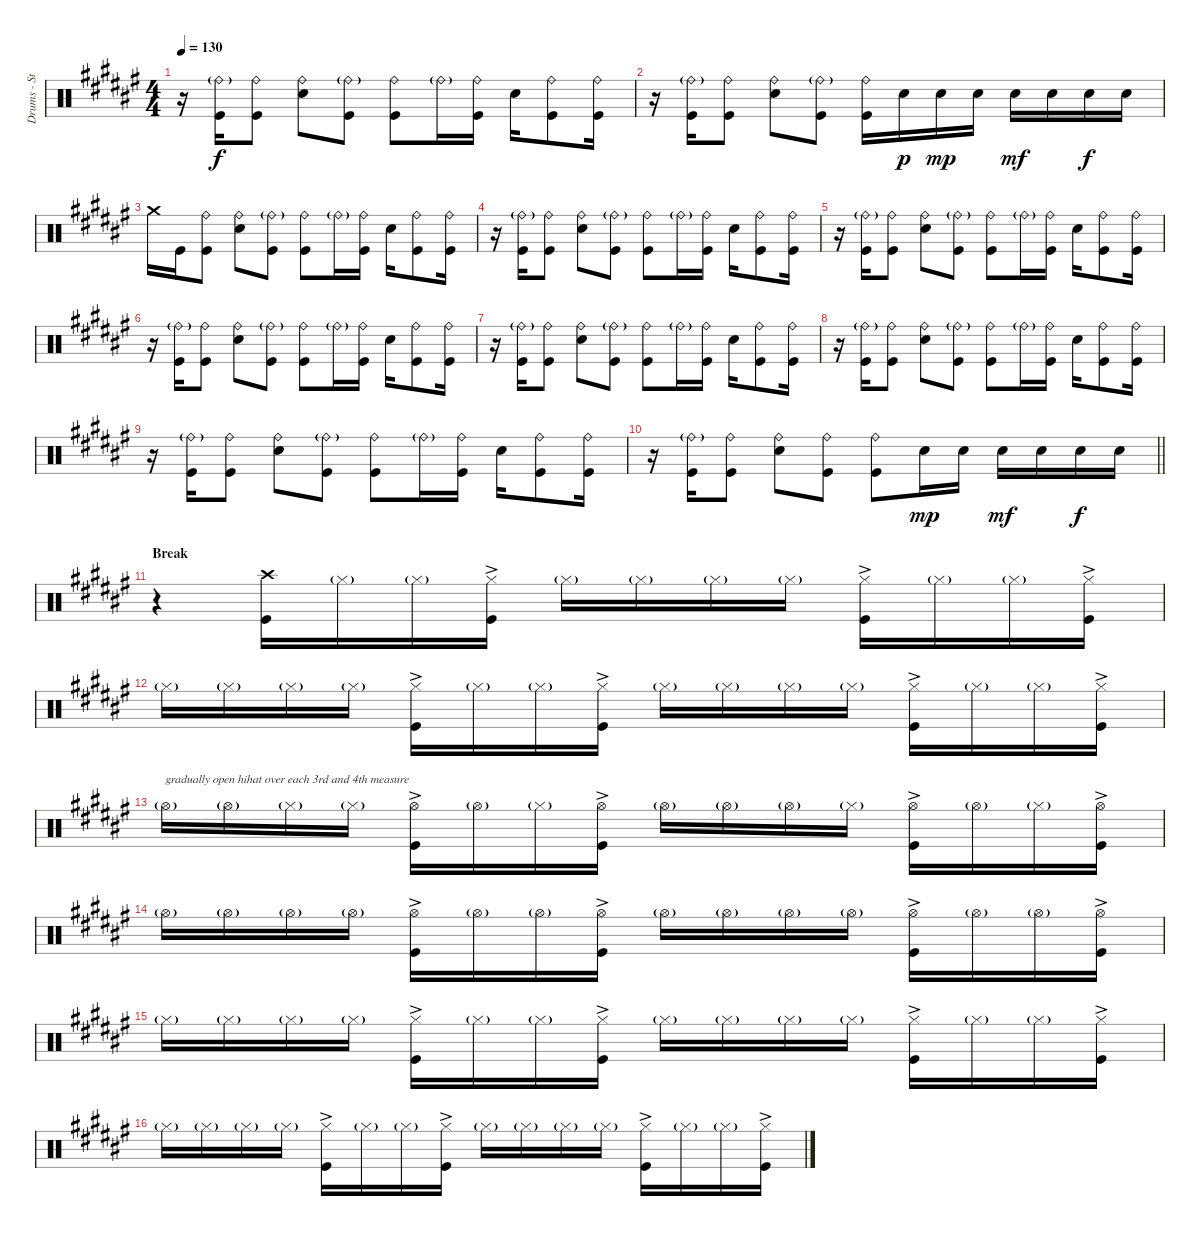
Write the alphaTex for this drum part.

\track ("Drums - Stef Broks" "Drums - St") {instrument percussion}
\staff {score}
\articulation defaults
\ts (4 4)
\tempo 130
\clef neutral
\ks d#minor
r.16{dy f} ("Kick (hit)" "Ride (bell)"{g}).16 ("Kick (hit)" "Ride (bell)").8 ("Ride (bell)" "Snare (hit) 2").8 ("Ride (bell)"{g} "Kick (hit)").8 ("Ride (bell)" "Kick (hit)").8 "Ride (bell)"{g}.16 ("Ride (bell)" "Kick (hit)").16 "Snare (hit) 2".16 ("Kick (hit)" "Ride (bell)").8 ("Kick (hit)" "Ride (bell)").16 |
r.16 ("Kick (hit)" "Ride (bell)"{g}).16 ("Kick (hit)" "Ride (bell)").8 ("Ride (bell)" "Snare (hit) 2").8 ("Ride (bell)"{g} "Kick (hit)").8 ("Ride (bell)" "Kick (hit)").16 "Snare (hit) 2".16{dy p} "Snare (hit) 2".16{dy mp} "Snare (hit) 2".16 "Snare (hit) 2".16{dy mf} "Snare (hit) 2".16 "Snare (hit) 2".16{dy f} "Snare (hit) 2".16 |
"Crash medium (hit)".16 "Kick (hit)".16 ("Kick (hit)" "Ride (bell)").8 ("Ride (bell)" "Snare (hit) 2").8 ("Ride (bell)"{g} "Kick (hit)").8 ("Ride (bell)" "Kick (hit)").8 "Ride (bell)"{g}.16 ("Ride (bell)" "Kick (hit)").16 "Snare (hit) 2".16 ("Kick (hit)" "Ride (bell)").8 ("Kick (hit)" "Ride (bell)").16 |
r.16 ("Kick (hit)" "Ride (bell)"{g}).16 ("Kick (hit)" "Ride (bell)").8 ("Ride (bell)" "Snare (hit) 2").8 ("Ride (bell)"{g} "Kick (hit)").8 ("Ride (bell)" "Kick (hit)").8 "Ride (bell)"{g}.16 ("Ride (bell)" "Kick (hit)").16 "Snare (hit) 2".16 ("Kick (hit)" "Ride (bell)").8 ("Kick (hit)" "Ride (bell)").16 |
r.16 ("Kick (hit)" "Ride (bell)"{g}).16 ("Kick (hit)" "Ride (bell)").8 ("Ride (bell)" "Snare (hit) 2").8 ("Ride (bell)"{g} "Kick (hit)").8 ("Ride (bell)" "Kick (hit)").8 "Ride (bell)"{g}.16 ("Ride (bell)" "Kick (hit)").16 "Snare (hit) 2".16 ("Kick (hit)" "Ride (bell)").8 ("Kick (hit)" "Ride (bell)").16 |
r.16 ("Kick (hit)" "Ride (bell)"{g}).16 ("Kick (hit)" "Ride (bell)").8 ("Ride (bell)" "Snare (hit) 2").8 ("Ride (bell)"{g} "Kick (hit)").8 ("Ride (bell)" "Kick (hit)").8 "Ride (bell)"{g}.16 ("Ride (bell)" "Kick (hit)").16 "Snare (hit) 2".16 ("Kick (hit)" "Ride (bell)").8 ("Kick (hit)" "Ride (bell)").16 |
r.16 ("Kick (hit)" "Ride (bell)"{g}).16 ("Kick (hit)" "Ride (bell)").8 ("Ride (bell)" "Snare (hit) 2").8 ("Ride (bell)"{g} "Kick (hit)").8 ("Ride (bell)" "Kick (hit)").8 "Ride (bell)"{g}.16 ("Ride (bell)" "Kick (hit)").16 "Snare (hit) 2".16 ("Kick (hit)" "Ride (bell)").8 ("Kick (hit)" "Ride (bell)").16 |
r.16 ("Kick (hit)" "Ride (bell)"{g}).16 ("Kick (hit)" "Ride (bell)").8 ("Ride (bell)" "Snare (hit) 2").8 ("Ride (bell)"{g} "Kick (hit)").8 ("Ride (bell)" "Kick (hit)").8 "Ride (bell)"{g}.16 ("Ride (bell)" "Kick (hit)").16 "Snare (hit) 2".16 ("Kick (hit)" "Ride (bell)").8 ("Kick (hit)" "Ride (bell)").16 |
r.16 ("Kick (hit)" "Ride (bell)"{g}).16 ("Kick (hit)" "Ride (bell)").8 ("Ride (bell)" "Snare (hit) 2").8 ("Ride (bell)"{g} "Kick (hit)").8 ("Ride (bell)" "Kick (hit)").8 "Ride (bell)"{g}.16 ("Ride (bell)" "Kick (hit)").16 "Snare (hit) 2".16 ("Kick (hit)" "Ride (bell)").8 ("Kick (hit)" "Ride (bell)").16 |
\barLineRight lightlight
r.16 ("Kick (hit)" "Ride (bell)"{g}).16 ("Kick (hit)" "Ride (bell)").8 ("Ride (bell)" "Snare (hit) 2").8 ("Ride (bell)" "Kick (hit)").8 ("Ride (bell)" "Kick (hit)").8 "Snare (hit) 2".16{dy mp} "Snare (hit) 2".16 "Snare (hit) 2".16{dy mf} "Snare (hit) 2".16 "Snare (hit) 2".16{dy f} "Snare (hit) 2".16 |
\section ("" "Break")
r.4 ("Crash high (hit)" "Kick (hit)").16 "Hi-Hat (closed)"{g}.16 "Hi-Hat (closed)"{g}.16 ("Hi-Hat (closed)"{ac} "Kick (hit)").16 "Hi-Hat (closed)"{g}.16 "Hi-Hat (closed)"{g}.16 "Hi-Hat (closed)"{g}.16 "Hi-Hat (closed)"{g}.16 ("Hi-Hat (closed)"{ac} "Kick (hit)").16 "Hi-Hat (closed)"{g}.16 "Hi-Hat (closed)"{g}.16 ("Hi-Hat (closed)"{ac} "Kick (hit)").16 |
"Hi-Hat (closed)"{g}.16 "Hi-Hat (closed)"{g}.16 "Hi-Hat (closed)"{g}.16 "Hi-Hat (closed)"{g}.16 ("Hi-Hat (closed)"{ac} "Kick (hit)").16 "Hi-Hat (closed)"{g}.16 "Hi-Hat (closed)"{g}.16 ("Hi-Hat (closed)"{ac} "Kick (hit)").16 "Hi-Hat (closed)"{g}.16 "Hi-Hat (closed)"{g}.16 "Hi-Hat (closed)"{g}.16 "Hi-Hat (closed)"{g}.16 ("Hi-Hat (closed)"{ac} "Kick (hit)").16 "Hi-Hat (closed)"{g}.16 "Hi-Hat (closed)"{g}.16 ("Hi-Hat (closed)"{ac} "Kick (hit)").16 |
"Hi-Hat (open)"{g}.16{txt "gradually open hihat over each 3rd and 4th measure"} "Hi-Hat (open)"{g}.16 "Hi-Hat (closed)"{g}.16 "Hi-Hat (closed)"{g}.16 ("Hi-Hat (open)"{ac} "Kick (hit)").16 "Hi-Hat (open)"{g}.16 "Hi-Hat (closed)"{g}.16 ("Hi-Hat (open)"{ac} "Kick (hit)").16 "Hi-Hat (open)"{g}.16 "Hi-Hat (open)"{g}.16 "Hi-Hat (open)"{g}.16 "Hi-Hat (closed)"{g}.16 ("Hi-Hat (open)"{ac} "Kick (hit)").16 "Hi-Hat (open)"{g}.16 "Hi-Hat (closed)"{g}.16 ("Hi-Hat (open)"{ac} "Kick (hit)").16 |
"Hi-Hat (open)"{g}.16 "Hi-Hat (open)"{g}.16 "Hi-Hat (open)"{g}.16 "Hi-Hat (open)"{g}.16 ("Hi-Hat (open)"{ac} "Kick (hit)").16 "Hi-Hat (open)"{g}.16 "Hi-Hat (open)"{g}.16 ("Hi-Hat (open)"{ac} "Kick (hit)").16 "Hi-Hat (open)"{g}.16 "Hi-Hat (open)"{g}.16 "Hi-Hat (open)"{g}.16 "Hi-Hat (open)"{g}.16 ("Hi-Hat (open)"{ac} "Kick (hit)").16 "Hi-Hat (open)"{g}.16 "Hi-Hat (open)"{g}.16 ("Hi-Hat (open)"{ac} "Kick (hit)").16 |
"Hi-Hat (closed)"{g}.16 "Hi-Hat (closed)"{g}.16 "Hi-Hat (closed)"{g}.16 "Hi-Hat (closed)"{g}.16 ("Kick (hit)" "Hi-Hat (closed)"{ac}).16 "Hi-Hat (closed)"{g}.16 "Hi-Hat (closed)"{g}.16 ("Hi-Hat (closed)"{ac} "Kick (hit)").16 "Hi-Hat (closed)"{g}.16 "Hi-Hat (closed)"{g}.16 "Hi-Hat (closed)"{g}.16 "Hi-Hat (closed)"{g}.16 ("Hi-Hat (closed)"{ac} "Kick (hit)").16 "Hi-Hat (closed)"{g}.16 "Hi-Hat (closed)"{g}.16 ("Hi-Hat (closed)"{ac} "Kick (hit)").16 |
"Hi-Hat (closed)"{g}.16 "Hi-Hat (closed)"{g}.16 "Hi-Hat (closed)"{g}.16 "Hi-Hat (closed)"{g}.16 ("Hi-Hat (closed)"{ac} "Kick (hit)").16 "Hi-Hat (closed)"{g}.16 "Hi-Hat (closed)"{g}.16 ("Hi-Hat (closed)"{ac} "Kick (hit)").16 "Hi-Hat (closed)"{g}.16 "Hi-Hat (closed)"{g}.16 "Hi-Hat (closed)"{g}.16 "Hi-Hat (closed)"{g}.16 ("Hi-Hat (closed)"{ac} "Kick (hit)").16 "Hi-Hat (closed)"{g}.16 "Hi-Hat (closed)"{g}.16 ("Hi-Hat (closed)"{ac} "Kick (hit)").16
